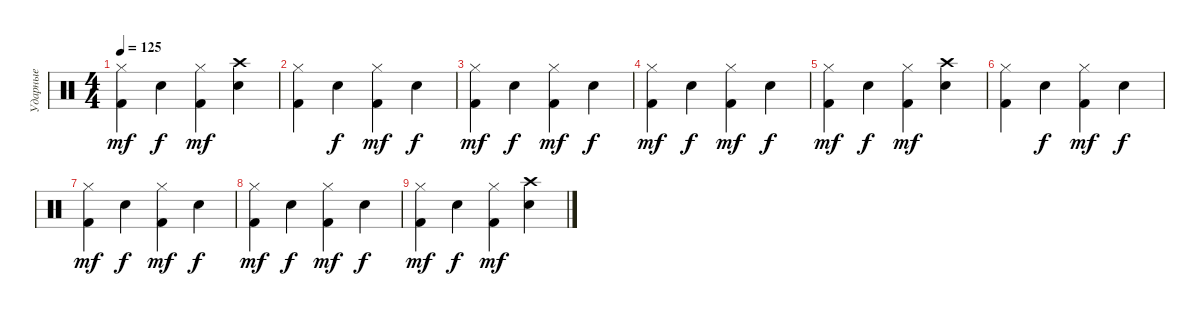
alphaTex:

\track ("Ударные" "Ударные") {instrument percussion}
\staff {score}
\articulation defaults
\ts (4 4)
\tempo 125
\clef neutral
\ks c
("Hi-Hat (closed)" "Kick (hit) 2").4{dy mf} "Electric Snare (hit)".4{dy f} ("Hi-Hat (closed)" "Kick (hit) 2").4{dy mf} ("Crash high (hit)" "Electric Snare (hit)").4 |
("Hi-Hat (closed)" "Kick (hit) 2").4 "Electric Snare (hit)".4{dy f} ("Hi-Hat (closed)" "Kick (hit) 2").4{dy mf} "Electric Snare (hit)".4{dy f} |
("Hi-Hat (closed)" "Kick (hit) 2").4{dy mf} "Electric Snare (hit)".4{dy f} ("Hi-Hat (closed)" "Kick (hit) 2").4{dy mf} "Electric Snare (hit)".4{dy f} |
("Hi-Hat (closed)" "Kick (hit) 2").4{dy mf} "Electric Snare (hit)".4{dy f} ("Hi-Hat (closed)" "Kick (hit) 2").4{dy mf} "Electric Snare (hit)".4{dy f} |
("Hi-Hat (closed)" "Kick (hit) 2").4{dy mf} "Electric Snare (hit)".4{dy f} ("Hi-Hat (closed)" "Kick (hit) 2").4{dy mf} ("Crash high (hit)" "Electric Snare (hit)").4 |
("Hi-Hat (closed)" "Kick (hit) 2").4 "Electric Snare (hit)".4{dy f} ("Hi-Hat (closed)" "Kick (hit) 2").4{dy mf} "Electric Snare (hit)".4{dy f} |
("Hi-Hat (closed)" "Kick (hit) 2").4{dy mf} "Electric Snare (hit)".4{dy f} ("Hi-Hat (closed)" "Kick (hit) 2").4{dy mf} "Electric Snare (hit)".4{dy f} |
("Hi-Hat (closed)" "Kick (hit) 2").4{dy mf} "Electric Snare (hit)".4{dy f} ("Hi-Hat (closed)" "Kick (hit) 2").4{dy mf} "Electric Snare (hit)".4{dy f} |
("Hi-Hat (closed)" "Kick (hit) 2").4{dy mf} "Electric Snare (hit)".4{dy f} ("Hi-Hat (closed)" "Kick (hit) 2").4{dy mf} ("Crash high (hit)" "Electric Snare (hit)").4
